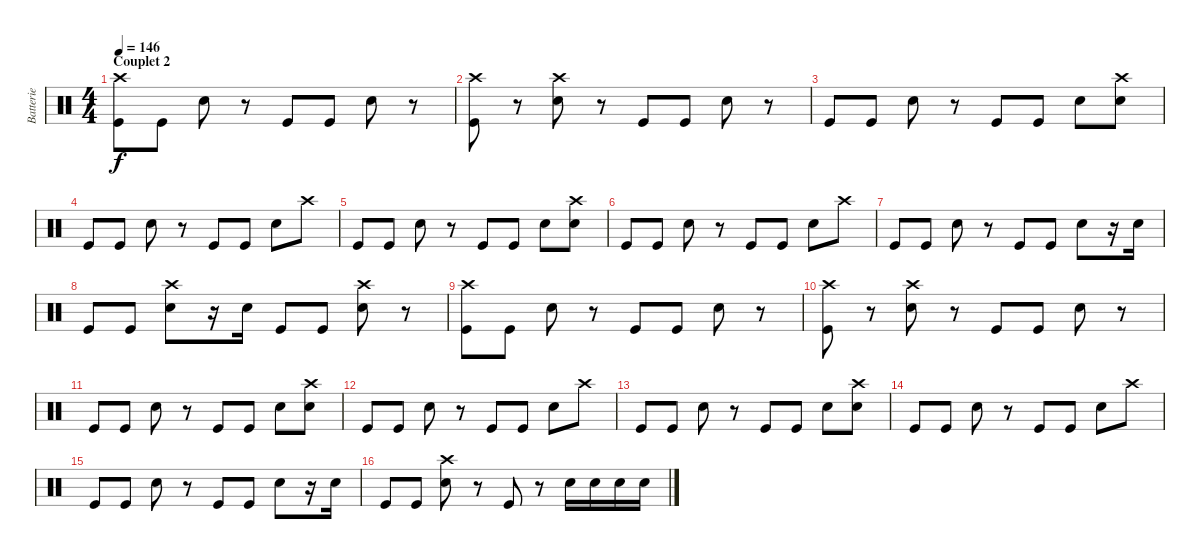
\track ("Batterie" "Batterie") {instrument percussion}
\staff {score}
\articulation defaults
\ts (4 4)
\section ("" "Couplet 2")
\tempo 146
\clef neutral
\ks c
("Crash high (hit)" "Kick (hit)").8{dy f} "Kick (hit)".8 "Snare (hit) 2".8 r.8 "Kick (hit)".8 "Kick (hit)".8 "Snare (hit) 2".8 r.8 |
("Crash high (hit)" "Kick (hit)").8 r.8 ("Crash high (hit)" "Snare (hit) 2").8 r.8 "Kick (hit)".8 "Kick (hit)".8 "Snare (hit) 2".8 r.8 |
"Kick (hit)".8 "Kick (hit)".8 "Snare (hit) 2".8 r.8 "Kick (hit)".8 "Kick (hit)".8 "Snare (hit) 2".8 ("Crash high (hit)" "Snare (hit) 2").8 |
"Kick (hit)".8 "Kick (hit)".8 "Snare (hit) 2".8 r.8 "Kick (hit)".8 "Kick (hit)".8 "Snare (hit) 2".8 "Crash high (hit)".8 |
"Kick (hit)".8 "Kick (hit)".8 "Snare (hit) 2".8 r.8 "Kick (hit)".8 "Kick (hit)".8 "Snare (hit) 2".8 ("Crash high (hit)" "Snare (hit) 2").8 |
"Kick (hit)".8 "Kick (hit)".8 "Snare (hit) 2".8 r.8 "Kick (hit)".8 "Kick (hit)".8 "Snare (hit) 2".8 "Crash high (hit)".8 |
"Kick (hit)".8 "Kick (hit)".8 "Snare (hit) 2".8 r.8 "Kick (hit)".8 "Kick (hit)".8 "Snare (hit) 2".8 r.16 "Snare (hit) 2".16 |
"Kick (hit)".8 "Kick (hit)".8 ("Crash high (hit)" "Snare (hit) 2").8 r.16 "Snare (hit) 2".16 "Kick (hit)".8 "Kick (hit)".8 ("Crash high (hit)" "Snare (hit) 2").8 r.8 |
("Crash high (hit)" "Kick (hit)").8 "Kick (hit)".8 "Snare (hit) 2".8 r.8 "Kick (hit)".8 "Kick (hit)".8 "Snare (hit) 2".8 r.8 |
("Crash high (hit)" "Kick (hit)").8 r.8 ("Crash high (hit)" "Snare (hit) 2").8 r.8 "Kick (hit)".8 "Kick (hit)".8 "Snare (hit) 2".8 r.8 |
"Kick (hit)".8 "Kick (hit)".8 "Snare (hit) 2".8 r.8 "Kick (hit)".8 "Kick (hit)".8 "Snare (hit) 2".8 ("Crash high (hit)" "Snare (hit) 2").8 |
"Kick (hit)".8 "Kick (hit)".8 "Snare (hit) 2".8 r.8 "Kick (hit)".8 "Kick (hit)".8 "Snare (hit) 2".8 "Crash high (hit)".8 |
"Kick (hit)".8 "Kick (hit)".8 "Snare (hit) 2".8 r.8 "Kick (hit)".8 "Kick (hit)".8 "Snare (hit) 2".8 ("Crash high (hit)" "Snare (hit) 2").8 |
"Kick (hit)".8 "Kick (hit)".8 "Snare (hit) 2".8 r.8 "Kick (hit)".8 "Kick (hit)".8 "Snare (hit) 2".8 "Crash high (hit)".8 |
"Kick (hit)".8 "Kick (hit)".8 "Snare (hit) 2".8 r.8 "Kick (hit)".8 "Kick (hit)".8 "Snare (hit) 2".8 r.16 "Snare (hit) 2".16 |
"Kick (hit)".8 "Kick (hit)".8 ("Crash high (hit)" "Snare (hit) 2").8 r.8 "Kick (hit)".8 r.8 "Snare (hit) 2".16 "Snare (hit) 2".16 "Snare (hit) 2".16 "Snare (hit) 2".16
